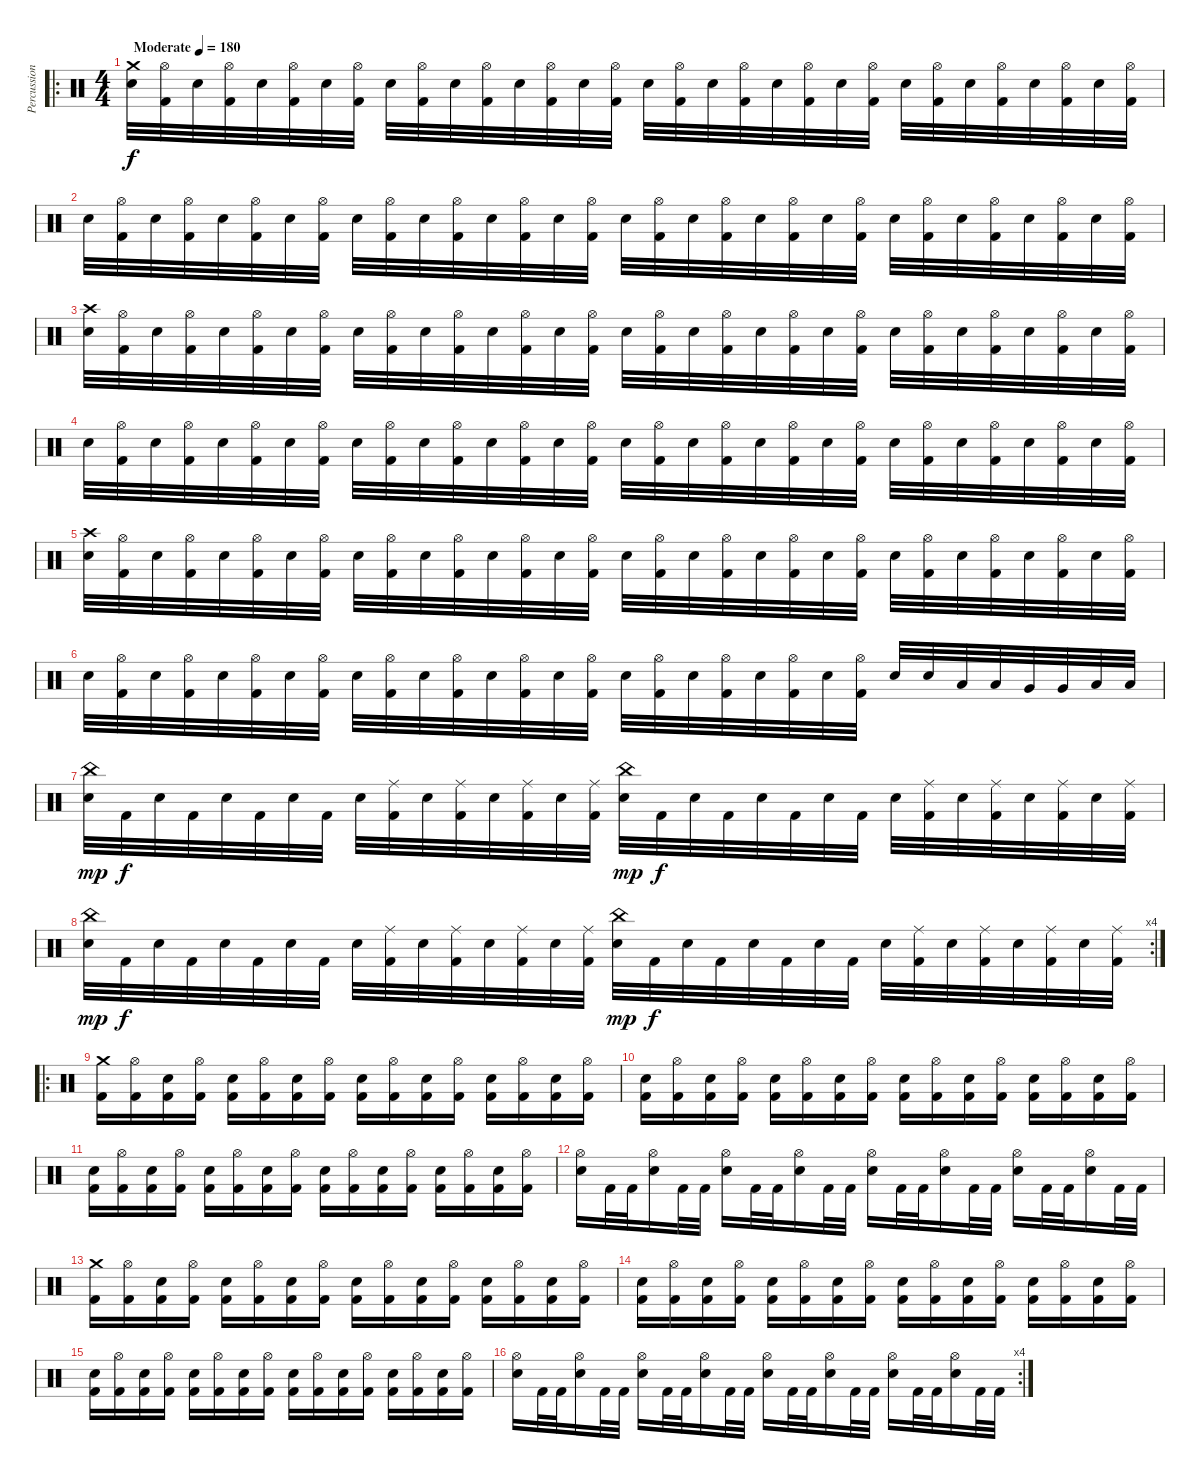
\track ("Percussion" "Percussion") {instrument percussion}
\staff {score}
\articulation defaults
\ro
\ts (4 4)
\tempo (180 "Moderate")
\clef neutral
\ks c
("Crash medium (hit)" "Electric Snare (hit)").32{dy f} ("Hi-Hat (open)" "Kick (hit) 2").32 "Electric Snare (hit)".32 ("Hi-Hat (open)" "Kick (hit) 2").32 "Electric Snare (hit)".32 ("Hi-Hat (open)" "Kick (hit) 2").32 "Electric Snare (hit)".32 ("Hi-Hat (open)" "Kick (hit) 2").32 "Electric Snare (hit)".32 ("Hi-Hat (open)" "Kick (hit) 2").32 "Electric Snare (hit)".32 ("Hi-Hat (open)" "Kick (hit) 2").32 "Electric Snare (hit)".32 ("Hi-Hat (open)" "Kick (hit) 2").32 "Electric Snare (hit)".32 ("Hi-Hat (open)" "Kick (hit) 2").32 "Electric Snare (hit)".32 ("Hi-Hat (open)" "Kick (hit) 2").32 "Electric Snare (hit)".32 ("Hi-Hat (open)" "Kick (hit) 2").32 "Electric Snare (hit)".32 ("Hi-Hat (open)" "Kick (hit) 2").32 "Electric Snare (hit)".32 ("Hi-Hat (open)" "Kick (hit) 2").32 "Electric Snare (hit)".32 ("Hi-Hat (open)" "Kick (hit) 2").32 "Electric Snare (hit)".32 ("Hi-Hat (open)" "Kick (hit) 2").32 "Electric Snare (hit)".32 ("Hi-Hat (open)" "Kick (hit) 2").32 "Electric Snare (hit)".32 ("Hi-Hat (open)" "Kick (hit) 2").32 |
"Electric Snare (hit)".32 ("Hi-Hat (open)" "Kick (hit) 2").32 "Electric Snare (hit)".32 ("Hi-Hat (open)" "Kick (hit) 2").32 "Electric Snare (hit)".32 ("Hi-Hat (open)" "Kick (hit) 2").32 "Electric Snare (hit)".32 ("Hi-Hat (open)" "Kick (hit) 2").32 "Electric Snare (hit)".32 ("Hi-Hat (open)" "Kick (hit) 2").32 "Electric Snare (hit)".32 ("Hi-Hat (open)" "Kick (hit) 2").32 "Electric Snare (hit)".32 ("Hi-Hat (open)" "Kick (hit) 2").32 "Electric Snare (hit)".32 ("Hi-Hat (open)" "Kick (hit) 2").32 "Electric Snare (hit)".32 ("Hi-Hat (open)" "Kick (hit) 2").32 "Electric Snare (hit)".32 ("Hi-Hat (open)" "Kick (hit) 2").32 "Electric Snare (hit)".32 ("Hi-Hat (open)" "Kick (hit) 2").32 "Electric Snare (hit)".32 ("Hi-Hat (open)" "Kick (hit) 2").32 "Electric Snare (hit)".32 ("Hi-Hat (open)" "Kick (hit) 2").32 "Electric Snare (hit)".32 ("Hi-Hat (open)" "Kick (hit) 2").32 "Electric Snare (hit)".32 ("Hi-Hat (open)" "Kick (hit) 2").32 "Electric Snare (hit)".32 ("Hi-Hat (open)" "Kick (hit) 2").32 |
("Crash high (hit)" "Electric Snare (hit)").32 ("Hi-Hat (open)" "Kick (hit) 2").32 "Electric Snare (hit)".32 ("Hi-Hat (open)" "Kick (hit) 2").32 "Electric Snare (hit)".32 ("Hi-Hat (open)" "Kick (hit) 2").32 "Electric Snare (hit)".32 ("Hi-Hat (open)" "Kick (hit) 2").32 "Electric Snare (hit)".32 ("Hi-Hat (open)" "Kick (hit) 2").32 "Electric Snare (hit)".32 ("Hi-Hat (open)" "Kick (hit) 2").32 "Electric Snare (hit)".32 ("Hi-Hat (open)" "Kick (hit) 2").32 "Electric Snare (hit)".32 ("Hi-Hat (open)" "Kick (hit) 2").32 "Electric Snare (hit)".32 ("Hi-Hat (open)" "Kick (hit) 2").32 "Electric Snare (hit)".32 ("Hi-Hat (open)" "Kick (hit) 2").32 "Electric Snare (hit)".32 ("Hi-Hat (open)" "Kick (hit) 2").32 "Electric Snare (hit)".32 ("Hi-Hat (open)" "Kick (hit) 2").32 "Electric Snare (hit)".32 ("Hi-Hat (open)" "Kick (hit) 2").32 "Electric Snare (hit)".32 ("Hi-Hat (open)" "Kick (hit) 2").32 "Electric Snare (hit)".32 ("Hi-Hat (open)" "Kick (hit) 2").32 "Electric Snare (hit)".32 ("Hi-Hat (open)" "Kick (hit) 2").32 |
"Electric Snare (hit)".32 ("Hi-Hat (open)" "Kick (hit) 2").32 "Electric Snare (hit)".32 ("Hi-Hat (open)" "Kick (hit) 2").32 "Electric Snare (hit)".32 ("Hi-Hat (open)" "Kick (hit) 2").32 "Electric Snare (hit)".32 ("Hi-Hat (open)" "Kick (hit) 2").32 "Electric Snare (hit)".32 ("Hi-Hat (open)" "Kick (hit) 2").32 "Electric Snare (hit)".32 ("Hi-Hat (open)" "Kick (hit) 2").32 "Electric Snare (hit)".32 ("Hi-Hat (open)" "Kick (hit) 2").32 "Electric Snare (hit)".32 ("Hi-Hat (open)" "Kick (hit) 2").32 "Electric Snare (hit)".32 ("Hi-Hat (open)" "Kick (hit) 2").32 "Electric Snare (hit)".32 ("Hi-Hat (open)" "Kick (hit) 2").32 "Electric Snare (hit)".32 ("Hi-Hat (open)" "Kick (hit) 2").32 "Electric Snare (hit)".32 ("Hi-Hat (open)" "Kick (hit) 2").32 "Electric Snare (hit)".32 ("Hi-Hat (open)" "Kick (hit) 2").32 "Electric Snare (hit)".32 ("Hi-Hat (open)" "Kick (hit) 2").32 "Electric Snare (hit)".32 ("Hi-Hat (open)" "Kick (hit) 2").32 "Electric Snare (hit)".32 ("Hi-Hat (open)" "Kick (hit) 2").32 |
("Crash high (hit)" "Electric Snare (hit)").32 ("Hi-Hat (open)" "Kick (hit) 2").32 "Electric Snare (hit)".32 ("Hi-Hat (open)" "Kick (hit) 2").32 "Electric Snare (hit)".32 ("Hi-Hat (open)" "Kick (hit) 2").32 "Electric Snare (hit)".32 ("Hi-Hat (open)" "Kick (hit) 2").32 "Electric Snare (hit)".32 ("Hi-Hat (open)" "Kick (hit) 2").32 "Electric Snare (hit)".32 ("Hi-Hat (open)" "Kick (hit) 2").32 "Electric Snare (hit)".32 ("Hi-Hat (open)" "Kick (hit) 2").32 "Electric Snare (hit)".32 ("Hi-Hat (open)" "Kick (hit) 2").32 "Electric Snare (hit)".32 ("Hi-Hat (open)" "Kick (hit) 2").32 "Electric Snare (hit)".32 ("Hi-Hat (open)" "Kick (hit) 2").32 "Electric Snare (hit)".32 ("Hi-Hat (open)" "Kick (hit) 2").32 "Electric Snare (hit)".32 ("Hi-Hat (open)" "Kick (hit) 2").32 "Electric Snare (hit)".32 ("Hi-Hat (open)" "Kick (hit) 2").32 "Electric Snare (hit)".32 ("Hi-Hat (open)" "Kick (hit) 2").32 "Electric Snare (hit)".32 ("Hi-Hat (open)" "Kick (hit) 2").32 "Electric Snare (hit)".32 ("Hi-Hat (open)" "Kick (hit) 2").32 |
"Electric Snare (hit)".32 ("Hi-Hat (open)" "Kick (hit) 2").32 "Electric Snare (hit)".32 ("Hi-Hat (open)" "Kick (hit) 2").32 "Electric Snare (hit)".32 ("Hi-Hat (open)" "Kick (hit) 2").32 "Electric Snare (hit)".32 ("Hi-Hat (open)" "Kick (hit) 2").32 "Electric Snare (hit)".32 ("Hi-Hat (open)" "Kick (hit) 2").32 "Electric Snare (hit)".32 ("Hi-Hat (open)" "Kick (hit) 2").32 "Electric Snare (hit)".32 ("Hi-Hat (open)" "Kick (hit) 2").32 "Electric Snare (hit)".32 ("Hi-Hat (open)" "Kick (hit) 2").32 "Electric Snare (hit)".32 ("Hi-Hat (open)" "Kick (hit) 2").32 "Electric Snare (hit)".32 ("Hi-Hat (open)" "Kick (hit) 2").32 "Electric Snare (hit)".32 ("Hi-Hat (open)" "Kick (hit) 2").32 "Electric Snare (hit)".32 ("Hi-Hat (open)" "Kick (hit) 2").32 "Electric Snare (hit)".32 "Electric Snare (hit)".32 "Low Tom (hit)".32 "Low Tom (hit)".32 "Very Low Tom (hit)".32 "Very Low Tom (hit)".32 "Low Floor Tom (hit)".32 "Low Floor Tom (hit)".32 |
("China (hit)" "Electric Snare (hit)").32{dy mp} "Kick (hit) 2".32{dy f} "Electric Snare (hit)".32 "Kick (hit) 2".32 "Electric Snare (hit)".32 "Kick (hit) 2".32 "Electric Snare (hit)".32 "Kick (hit) 2".32 "Electric Snare (hit)".32 ("Ride (middle)" "Kick (hit) 2").32 "Electric Snare (hit)".32 ("Ride (middle)" "Kick (hit) 2").32 "Electric Snare (hit)".32 ("Ride (middle)" "Kick (hit) 2").32 "Electric Snare (hit)".32 ("Ride (middle)" "Kick (hit) 2").32 ("China (hit)" "Electric Snare (hit)").32{dy mp} "Kick (hit) 2".32{dy f} "Electric Snare (hit)".32 "Kick (hit) 2".32 "Electric Snare (hit)".32 "Kick (hit) 2".32 "Electric Snare (hit)".32 "Kick (hit) 2".32 "Electric Snare (hit)".32 ("Ride (middle)" "Kick (hit) 2").32 "Electric Snare (hit)".32 ("Ride (middle)" "Kick (hit) 2").32 "Electric Snare (hit)".32 ("Ride (middle)" "Kick (hit) 2").32 "Electric Snare (hit)".32 ("Ride (middle)" "Kick (hit) 2").32 |
\rc 4
("China (hit)" "Electric Snare (hit)").32{dy mp} "Kick (hit) 2".32{dy f} "Electric Snare (hit)".32 "Kick (hit) 2".32 "Electric Snare (hit)".32 "Kick (hit) 2".32 "Electric Snare (hit)".32 "Kick (hit) 2".32 "Electric Snare (hit)".32 ("Ride (middle)" "Kick (hit) 2").32 "Electric Snare (hit)".32 ("Ride (middle)" "Kick (hit) 2").32 "Electric Snare (hit)".32 ("Ride (middle)" "Kick (hit) 2").32 "Electric Snare (hit)".32 ("Ride (middle)" "Kick (hit) 2").32 ("China (hit)" "Electric Snare (hit)").32{dy mp} "Kick (hit) 2".32{dy f} "Electric Snare (hit)".32 "Kick (hit) 2".32 "Electric Snare (hit)".32 "Kick (hit) 2".32 "Electric Snare (hit)".32 "Kick (hit) 2".32 "Electric Snare (hit)".32 ("Ride (middle)" "Kick (hit) 2").32 "Electric Snare (hit)".32 ("Ride (middle)" "Kick (hit) 2").32 "Electric Snare (hit)".32 ("Ride (middle)" "Kick (hit) 2").32 "Electric Snare (hit)".32 ("Ride (middle)" "Kick (hit) 2").32 |
\ro
("Crash medium (hit)" "Kick (hit) 2").16 ("Hi-Hat (open)" "Kick (hit) 2").16 ("Electric Snare (hit)" "Kick (hit) 2").16 ("Hi-Hat (open)" "Kick (hit) 2").16 ("Electric Snare (hit)" "Kick (hit) 2").16 ("Hi-Hat (open)" "Kick (hit) 2").16 ("Electric Snare (hit)" "Kick (hit) 2").16 ("Hi-Hat (open)" "Kick (hit) 2").16 ("Electric Snare (hit)" "Kick (hit) 2").16 ("Hi-Hat (open)" "Kick (hit) 2").16 ("Electric Snare (hit)" "Kick (hit) 2").16 ("Hi-Hat (open)" "Kick (hit) 2").16 ("Electric Snare (hit)" "Kick (hit) 2").16 ("Hi-Hat (open)" "Kick (hit) 2").16 ("Electric Snare (hit)" "Kick (hit) 2").16 ("Hi-Hat (open)" "Kick (hit) 2").16 |
("Electric Snare (hit)" "Kick (hit) 2").16 ("Hi-Hat (open)" "Kick (hit) 2").16 ("Electric Snare (hit)" "Kick (hit) 2").16 ("Hi-Hat (open)" "Kick (hit) 2").16 ("Electric Snare (hit)" "Kick (hit) 2").16 ("Hi-Hat (open)" "Kick (hit) 2").16 ("Electric Snare (hit)" "Kick (hit) 2").16 ("Hi-Hat (open)" "Kick (hit) 2").16 ("Electric Snare (hit)" "Kick (hit) 2").16 ("Hi-Hat (open)" "Kick (hit) 2").16 ("Electric Snare (hit)" "Kick (hit) 2").16 ("Hi-Hat (open)" "Kick (hit) 2").16 ("Electric Snare (hit)" "Kick (hit) 2").16 ("Hi-Hat (open)" "Kick (hit) 2").16 ("Electric Snare (hit)" "Kick (hit) 2").16 ("Hi-Hat (open)" "Kick (hit) 2").16 |
("Electric Snare (hit)" "Kick (hit) 2").16 ("Hi-Hat (open)" "Kick (hit) 2").16 ("Electric Snare (hit)" "Kick (hit) 2").16 ("Hi-Hat (open)" "Kick (hit) 2").16 ("Electric Snare (hit)" "Kick (hit) 2").16 ("Hi-Hat (open)" "Kick (hit) 2").16 ("Electric Snare (hit)" "Kick (hit) 2").16 ("Hi-Hat (open)" "Kick (hit) 2").16 ("Electric Snare (hit)" "Kick (hit) 2").16 ("Hi-Hat (open)" "Kick (hit) 2").16 ("Electric Snare (hit)" "Kick (hit) 2").16 ("Hi-Hat (open)" "Kick (hit) 2").16 ("Electric Snare (hit)" "Kick (hit) 2").16 ("Hi-Hat (open)" "Kick (hit) 2").16 ("Electric Snare (hit)" "Kick (hit) 2").16 ("Hi-Hat (open)" "Kick (hit) 2").16 |
("Hi-Hat (open)" "Electric Snare (hit)").16 "Kick (hit) 2".32 "Kick (hit) 2".32 ("Hi-Hat (open)" "Electric Snare (hit)").16 "Kick (hit) 2".32 "Kick (hit) 2".32 ("Hi-Hat (open)" "Electric Snare (hit)").16 "Kick (hit) 2".32 "Kick (hit) 2".32 ("Hi-Hat (open)" "Electric Snare (hit)").16 "Kick (hit) 2".32 "Kick (hit) 2".32 ("Hi-Hat (open)" "Electric Snare (hit)").16 "Kick (hit) 2".32 "Kick (hit) 2".32 ("Hi-Hat (open)" "Electric Snare (hit)").16 "Kick (hit) 2".32 "Kick (hit) 2".32 ("Hi-Hat (open)" "Electric Snare (hit)").16 "Kick (hit) 2".32 "Kick (hit) 2".32 ("Hi-Hat (open)" "Electric Snare (hit)").16 "Kick (hit) 2".32 "Kick (hit) 2".32 |
("Crash medium (hit)" "Kick (hit) 2").16 ("Hi-Hat (open)" "Kick (hit) 2").16 ("Electric Snare (hit)" "Kick (hit) 2").16 ("Hi-Hat (open)" "Kick (hit) 2").16 ("Electric Snare (hit)" "Kick (hit) 2").16 ("Hi-Hat (open)" "Kick (hit) 2").16 ("Electric Snare (hit)" "Kick (hit) 2").16 ("Hi-Hat (open)" "Kick (hit) 2").16 ("Electric Snare (hit)" "Kick (hit) 2").16 ("Hi-Hat (open)" "Kick (hit) 2").16 ("Electric Snare (hit)" "Kick (hit) 2").16 ("Hi-Hat (open)" "Kick (hit) 2").16 ("Electric Snare (hit)" "Kick (hit) 2").16 ("Hi-Hat (open)" "Kick (hit) 2").16 ("Electric Snare (hit)" "Kick (hit) 2").16 ("Hi-Hat (open)" "Kick (hit) 2").16 |
("Electric Snare (hit)" "Kick (hit) 2").16 ("Hi-Hat (open)" "Kick (hit) 2").16 ("Electric Snare (hit)" "Kick (hit) 2").16 ("Hi-Hat (open)" "Kick (hit) 2").16 ("Electric Snare (hit)" "Kick (hit) 2").16 ("Hi-Hat (open)" "Kick (hit) 2").16 ("Electric Snare (hit)" "Kick (hit) 2").16 ("Hi-Hat (open)" "Kick (hit) 2").16 ("Electric Snare (hit)" "Kick (hit) 2").16 ("Hi-Hat (open)" "Kick (hit) 2").16 ("Electric Snare (hit)" "Kick (hit) 2").16 ("Hi-Hat (open)" "Kick (hit) 2").16 ("Electric Snare (hit)" "Kick (hit) 2").16 ("Hi-Hat (open)" "Kick (hit) 2").16 ("Electric Snare (hit)" "Kick (hit) 2").16 ("Hi-Hat (open)" "Kick (hit) 2").16 |
("Electric Snare (hit)" "Kick (hit) 2").16 ("Hi-Hat (open)" "Kick (hit) 2").16 ("Electric Snare (hit)" "Kick (hit) 2").16 ("Hi-Hat (open)" "Kick (hit) 2").16 ("Electric Snare (hit)" "Kick (hit) 2").16 ("Hi-Hat (open)" "Kick (hit) 2").16 ("Electric Snare (hit)" "Kick (hit) 2").16 ("Hi-Hat (open)" "Kick (hit) 2").16 ("Electric Snare (hit)" "Kick (hit) 2").16 ("Hi-Hat (open)" "Kick (hit) 2").16 ("Electric Snare (hit)" "Kick (hit) 2").16 ("Hi-Hat (open)" "Kick (hit) 2").16 ("Electric Snare (hit)" "Kick (hit) 2").16 ("Hi-Hat (open)" "Kick (hit) 2").16 ("Electric Snare (hit)" "Kick (hit) 2").16 ("Hi-Hat (open)" "Kick (hit) 2").16 |
\rc 4
("Hi-Hat (open)" "Electric Snare (hit)").16 "Kick (hit) 2".32 "Kick (hit) 2".32 ("Hi-Hat (open)" "Electric Snare (hit)").16 "Kick (hit) 2".32 "Kick (hit) 2".32 ("Hi-Hat (open)" "Electric Snare (hit)").16 "Kick (hit) 2".32 "Kick (hit) 2".32 ("Hi-Hat (open)" "Electric Snare (hit)").16 "Kick (hit) 2".32 "Kick (hit) 2".32 ("Hi-Hat (open)" "Electric Snare (hit)").16 "Kick (hit) 2".32 "Kick (hit) 2".32 ("Hi-Hat (open)" "Electric Snare (hit)").16 "Kick (hit) 2".32 "Kick (hit) 2".32 ("Hi-Hat (open)" "Electric Snare (hit)").16 "Kick (hit) 2".32 "Kick (hit) 2".32 ("Hi-Hat (open)" "Electric Snare (hit)").16 "Kick (hit) 2".32 "Kick (hit) 2".32
